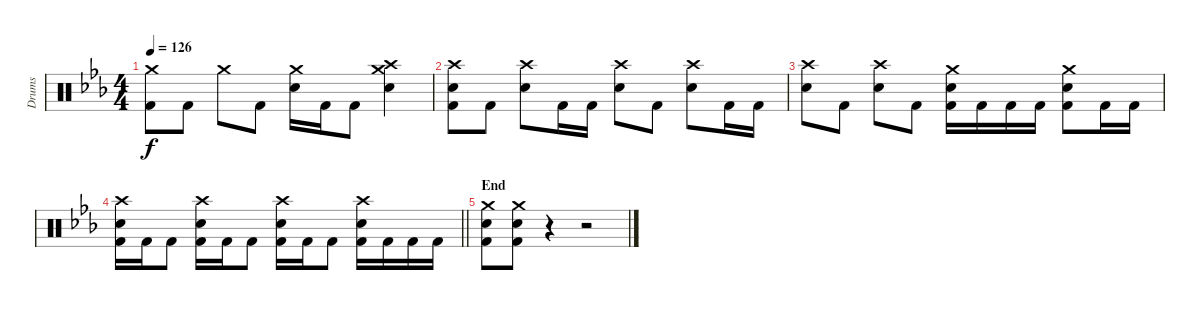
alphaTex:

\track ("Drums" "Drums") {instrument percussion}
\staff {score}
\articulation defaults
\ts (4 4)
\tempo 126
\clef neutral
\ks cminor
("Crash medium (hit)" "Kick (hit) 2").8{dy f} "Kick (hit) 2".8 "Crash medium (hit)".8 "Kick (hit) 2".8 ("Crash medium (hit)" "Snare (hit) 2").16 "Kick (hit) 2".16 "Kick (hit) 2".8 ("Crash medium (hit)" "Crash high (hit)" "Snare (hit) 2").4 |
("Crash high (hit)" "Snare (hit) 2" "Kick (hit) 2").8 "Kick (hit) 2".8 ("Crash high (hit)" "Snare (hit) 2").8 "Kick (hit) 2".16 "Kick (hit) 2".16 ("Crash high (hit)" "Snare (hit) 2").8 "Kick (hit) 2".8 ("Crash high (hit)" "Snare (hit) 2").8 "Kick (hit) 2".16 "Kick (hit) 2".16 |
("Crash high (hit)" "Snare (hit) 2").8 "Kick (hit) 2".8 ("Crash high (hit)" "Snare (hit) 2").8 "Kick (hit) 2".8 ("Crash medium (hit)" "Snare (hit) 2" "Kick (hit) 2").16 "Kick (hit) 2".16 "Kick (hit) 2".16 "Kick (hit) 2".16 ("Crash medium (hit)" "Snare (hit) 2" "Kick (hit) 2").8 "Kick (hit) 2".16 "Kick (hit) 2".16 |
\barLineRight lightlight
("Crash high (hit)" "Snare (hit) 2" "Kick (hit) 2").16 "Kick (hit) 2".16 "Kick (hit) 2".8 ("Crash high (hit)" "Snare (hit) 2" "Kick (hit) 2").16 "Kick (hit) 2".16 "Kick (hit) 2".8 ("Crash high (hit)" "Snare (hit) 2" "Kick (hit) 2").16 "Kick (hit) 2".16 "Kick (hit) 2".8 ("Crash high (hit)" "Snare (hit) 2" "Kick (hit) 2").16 "Kick (hit) 2".16 "Kick (hit) 2".16 "Kick (hit) 2".16 |
\section ("" "End")
("Crash medium (hit)" "Snare (hit) 2" "Kick (hit) 2").8 ("Crash medium (hit)" "Snare (hit) 2" "Kick (hit) 2").8 r.4 r.2
